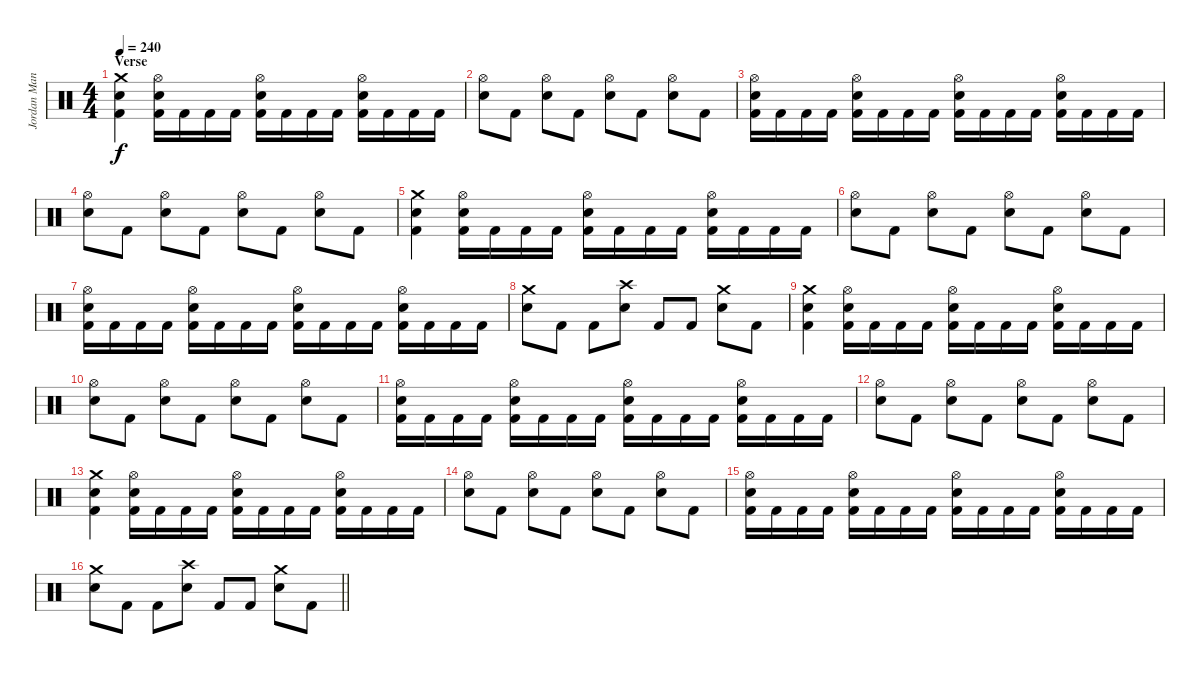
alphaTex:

\track ("Jordan Mancino" "Jordan Man") {instrument percussion}
\staff {score}
\articulation defaults
\ts (4 4)
\section ("" "Verse")
\tempo 240
\clef neutral
\ks c
("Crash medium (hit)" "Electric Snare (hit)" "Kick (hit) 2").4{dy f} ("Hi-Hat (open)" "Electric Snare (hit)" "Kick (hit) 2").16 "Kick (hit) 2".16 "Kick (hit) 2".16 "Kick (hit) 2".16 ("Hi-Hat (open)" "Electric Snare (hit)" "Kick (hit) 2").16 "Kick (hit) 2".16 "Kick (hit) 2".16 "Kick (hit) 2".16 ("Hi-Hat (open)" "Electric Snare (hit)" "Kick (hit) 2").16 "Kick (hit) 2".16 "Kick (hit) 2".16 "Kick (hit) 2".16 |
("Hi-Hat (open)" "Electric Snare (hit)").8 "Kick (hit) 2".8 ("Hi-Hat (open)" "Electric Snare (hit)").8 "Kick (hit) 2".8 ("Hi-Hat (open)" "Electric Snare (hit)").8 "Kick (hit) 2".8 ("Hi-Hat (open)" "Electric Snare (hit)").8 "Kick (hit) 2".8 |
("Hi-Hat (open)" "Electric Snare (hit)" "Kick (hit) 2").16 "Kick (hit) 2".16 "Kick (hit) 2".16 "Kick (hit) 2".16 ("Hi-Hat (open)" "Electric Snare (hit)" "Kick (hit) 2").16 "Kick (hit) 2".16 "Kick (hit) 2".16 "Kick (hit) 2".16 ("Hi-Hat (open)" "Electric Snare (hit)" "Kick (hit) 2").16 "Kick (hit) 2".16 "Kick (hit) 2".16 "Kick (hit) 2".16 ("Hi-Hat (open)" "Electric Snare (hit)" "Kick (hit) 2").16 "Kick (hit) 2".16 "Kick (hit) 2".16 "Kick (hit) 2".16 |
("Hi-Hat (open)" "Electric Snare (hit)").8 "Kick (hit) 2".8 ("Hi-Hat (open)" "Electric Snare (hit)").8 "Kick (hit) 2".8 ("Hi-Hat (open)" "Electric Snare (hit)").8 "Kick (hit) 2".8 ("Hi-Hat (open)" "Electric Snare (hit)").8 "Kick (hit) 2".8 |
("Crash medium (hit)" "Electric Snare (hit)" "Kick (hit) 2").4 ("Hi-Hat (open)" "Electric Snare (hit)" "Kick (hit) 2").16 "Kick (hit) 2".16 "Kick (hit) 2".16 "Kick (hit) 2".16 ("Hi-Hat (open)" "Electric Snare (hit)" "Kick (hit) 2").16 "Kick (hit) 2".16 "Kick (hit) 2".16 "Kick (hit) 2".16 ("Hi-Hat (open)" "Electric Snare (hit)" "Kick (hit) 2").16 "Kick (hit) 2".16 "Kick (hit) 2".16 "Kick (hit) 2".16 |
("Hi-Hat (open)" "Electric Snare (hit)").8 "Kick (hit) 2".8 ("Hi-Hat (open)" "Electric Snare (hit)").8 "Kick (hit) 2".8 ("Hi-Hat (open)" "Electric Snare (hit)").8 "Kick (hit) 2".8 ("Hi-Hat (open)" "Electric Snare (hit)").8 "Kick (hit) 2".8 |
("Hi-Hat (open)" "Electric Snare (hit)" "Kick (hit) 2").16 "Kick (hit) 2".16 "Kick (hit) 2".16 "Kick (hit) 2".16 ("Hi-Hat (open)" "Electric Snare (hit)" "Kick (hit) 2").16 "Kick (hit) 2".16 "Kick (hit) 2".16 "Kick (hit) 2".16 ("Hi-Hat (open)" "Electric Snare (hit)" "Kick (hit) 2").16 "Kick (hit) 2".16 "Kick (hit) 2".16 "Kick (hit) 2".16 ("Hi-Hat (open)" "Electric Snare (hit)" "Kick (hit) 2").16 "Kick (hit) 2".16 "Kick (hit) 2".16 "Kick (hit) 2".16 |
("Crash medium (hit)" "Electric Snare (hit)").8 "Kick (hit) 2".8 "Kick (hit) 2".8 ("Crash high (hit)" "Electric Snare (hit)").8 "Kick (hit) 2".8 "Kick (hit) 2".8 ("Crash medium (hit)" "Electric Snare (hit)").8 "Kick (hit) 2".8 |
("Crash medium (hit)" "Electric Snare (hit)" "Kick (hit) 2").4 ("Hi-Hat (open)" "Electric Snare (hit)" "Kick (hit) 2").16 "Kick (hit) 2".16 "Kick (hit) 2".16 "Kick (hit) 2".16 ("Hi-Hat (open)" "Electric Snare (hit)" "Kick (hit) 2").16 "Kick (hit) 2".16 "Kick (hit) 2".16 "Kick (hit) 2".16 ("Hi-Hat (open)" "Electric Snare (hit)" "Kick (hit) 2").16 "Kick (hit) 2".16 "Kick (hit) 2".16 "Kick (hit) 2".16 |
("Hi-Hat (open)" "Electric Snare (hit)").8 "Kick (hit) 2".8 ("Hi-Hat (open)" "Electric Snare (hit)").8 "Kick (hit) 2".8 ("Hi-Hat (open)" "Electric Snare (hit)").8 "Kick (hit) 2".8 ("Hi-Hat (open)" "Electric Snare (hit)").8 "Kick (hit) 2".8 |
("Hi-Hat (open)" "Electric Snare (hit)" "Kick (hit) 2").16 "Kick (hit) 2".16 "Kick (hit) 2".16 "Kick (hit) 2".16 ("Hi-Hat (open)" "Electric Snare (hit)" "Kick (hit) 2").16 "Kick (hit) 2".16 "Kick (hit) 2".16 "Kick (hit) 2".16 ("Hi-Hat (open)" "Electric Snare (hit)" "Kick (hit) 2").16 "Kick (hit) 2".16 "Kick (hit) 2".16 "Kick (hit) 2".16 ("Hi-Hat (open)" "Electric Snare (hit)" "Kick (hit) 2").16 "Kick (hit) 2".16 "Kick (hit) 2".16 "Kick (hit) 2".16 |
("Hi-Hat (open)" "Electric Snare (hit)").8 "Kick (hit) 2".8 ("Hi-Hat (open)" "Electric Snare (hit)").8 "Kick (hit) 2".8 ("Hi-Hat (open)" "Electric Snare (hit)").8 "Kick (hit) 2".8 ("Hi-Hat (open)" "Electric Snare (hit)").8 "Kick (hit) 2".8 |
("Crash medium (hit)" "Electric Snare (hit)" "Kick (hit) 2").4 ("Hi-Hat (open)" "Electric Snare (hit)" "Kick (hit) 2").16 "Kick (hit) 2".16 "Kick (hit) 2".16 "Kick (hit) 2".16 ("Hi-Hat (open)" "Electric Snare (hit)" "Kick (hit) 2").16 "Kick (hit) 2".16 "Kick (hit) 2".16 "Kick (hit) 2".16 ("Hi-Hat (open)" "Electric Snare (hit)" "Kick (hit) 2").16 "Kick (hit) 2".16 "Kick (hit) 2".16 "Kick (hit) 2".16 |
("Hi-Hat (open)" "Electric Snare (hit)").8 "Kick (hit) 2".8 ("Hi-Hat (open)" "Electric Snare (hit)").8 "Kick (hit) 2".8 ("Hi-Hat (open)" "Electric Snare (hit)").8 "Kick (hit) 2".8 ("Hi-Hat (open)" "Electric Snare (hit)").8 "Kick (hit) 2".8 |
("Hi-Hat (open)" "Electric Snare (hit)" "Kick (hit) 2").16 "Kick (hit) 2".16 "Kick (hit) 2".16 "Kick (hit) 2".16 ("Hi-Hat (open)" "Electric Snare (hit)" "Kick (hit) 2").16 "Kick (hit) 2".16 "Kick (hit) 2".16 "Kick (hit) 2".16 ("Hi-Hat (open)" "Electric Snare (hit)" "Kick (hit) 2").16 "Kick (hit) 2".16 "Kick (hit) 2".16 "Kick (hit) 2".16 ("Hi-Hat (open)" "Electric Snare (hit)" "Kick (hit) 2").16 "Kick (hit) 2".16 "Kick (hit) 2".16 "Kick (hit) 2".16 |
\barLineRight lightlight
("Crash medium (hit)" "Electric Snare (hit)").8 "Kick (hit) 2".8 "Kick (hit) 2".8 ("Crash high (hit)" "Electric Snare (hit)").8 "Kick (hit) 2".8 "Kick (hit) 2".8 ("Crash medium (hit)" "Electric Snare (hit)").8 "Kick (hit) 2".8
